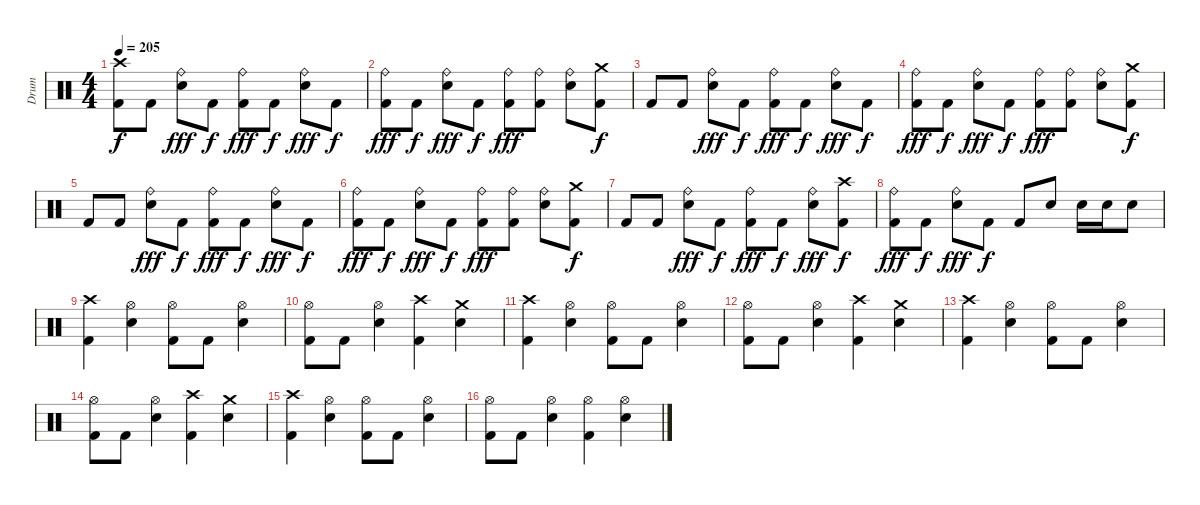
\track ("Drum" "Drum") {instrument percussion}
\staff {score}
\articulation defaults
\ts (4 4)
\tempo 205
\clef neutral
\ks c
("Kick (hit) 2" "Crash high (hit)").8{dy f} "Kick (hit) 2".8 ("Electric Snare (hit)" "Ride (bell)").8{dy fff} "Kick (hit) 2".8{dy f} ("Kick (hit) 2" "Ride (bell)").8{dy fff} "Kick (hit) 2".8{dy f} ("Electric Snare (hit)" "Ride (bell)").8{dy fff} "Kick (hit) 2".8{dy f} |
("Kick (hit) 2" "Ride (bell)").8{dy fff} "Kick (hit) 2".8{dy f} ("Electric Snare (hit)" "Ride (bell)").8{dy fff} "Kick (hit) 2".8{dy f} ("Kick (hit) 2" "Ride (bell)").8{dy fff} ("Kick (hit) 2" "Ride (bell)").8 ("Electric Snare (hit)" "Ride (bell)").8 ("Kick (hit) 2" "Crash medium (hit)").8{dy f} |
"Kick (hit) 2".8 "Kick (hit) 2".8 ("Electric Snare (hit)" "Ride (bell)").8{dy fff} "Kick (hit) 2".8{dy f} ("Kick (hit) 2" "Ride (bell)").8{dy fff} "Kick (hit) 2".8{dy f} ("Electric Snare (hit)" "Ride (bell)").8{dy fff} "Kick (hit) 2".8{dy f} |
("Kick (hit) 2" "Ride (bell)").8{dy fff} "Kick (hit) 2".8{dy f} ("Electric Snare (hit)" "Ride (bell)").8{dy fff} "Kick (hit) 2".8{dy f} ("Kick (hit) 2" "Ride (bell)").8{dy fff} ("Kick (hit) 2" "Ride (bell)").8 ("Electric Snare (hit)" "Ride (bell)").8 ("Kick (hit) 2" "Crash medium (hit)").8{dy f} |
"Kick (hit) 2".8 "Kick (hit) 2".8 ("Electric Snare (hit)" "Ride (bell)").8{dy fff} "Kick (hit) 2".8{dy f} ("Kick (hit) 2" "Ride (bell)").8{dy fff} "Kick (hit) 2".8{dy f} ("Electric Snare (hit)" "Ride (bell)").8{dy fff} "Kick (hit) 2".8{dy f} |
("Kick (hit) 2" "Ride (bell)").8{dy fff} "Kick (hit) 2".8{dy f} ("Electric Snare (hit)" "Ride (bell)").8{dy fff} "Kick (hit) 2".8{dy f} ("Kick (hit) 2" "Ride (bell)").8{dy fff} ("Kick (hit) 2" "Ride (bell)").8 ("Electric Snare (hit)" "Ride (bell)").8 ("Kick (hit) 2" "Crash medium (hit)").8{dy f} |
"Kick (hit) 2".8 "Kick (hit) 2".8 ("Electric Snare (hit)" "Ride (bell)").8{dy fff} "Kick (hit) 2".8{dy f} ("Kick (hit) 2" "Ride (bell)").8{dy fff} "Kick (hit) 2".8{dy f} ("Electric Snare (hit)" "Ride (bell)").8{dy fff} ("Kick (hit) 2" "Crash high (hit)").8{dy f} |
("Kick (hit) 2" "Ride (bell)").8{dy fff} "Kick (hit) 2".8{dy f} ("Electric Snare (hit)" "Ride (bell)").8{dy fff} "Kick (hit) 2".8{dy f} "Kick (hit) 2".8 "Electric Snare (hit)".8 "Electric Snare (hit)".16 "Electric Snare (hit)".16 "Electric Snare (hit)".8 |
("Kick (hit) 2" "Crash high (hit)").4 ("Electric Snare (hit)" "Hi-Hat (open)").4 ("Kick (hit) 2" "Hi-Hat (open)").8 "Kick (hit) 2".8 ("Electric Snare (hit)" "Hi-Hat (open)").4 |
("Kick (hit) 2" "Hi-Hat (open)").8 "Kick (hit) 2".8 ("Electric Snare (hit)" "Hi-Hat (open)").4 ("Kick (hit) 2" "Crash high (hit)").4 ("Electric Snare (hit)" "Crash medium (hit)").4 |
("Kick (hit) 2" "Crash high (hit)").4 ("Electric Snare (hit)" "Hi-Hat (open)").4 ("Kick (hit) 2" "Hi-Hat (open)").8 "Kick (hit) 2".8 ("Electric Snare (hit)" "Hi-Hat (open)").4 |
("Kick (hit) 2" "Hi-Hat (open)").8 "Kick (hit) 2".8 ("Electric Snare (hit)" "Hi-Hat (open)").4 ("Kick (hit) 2" "Crash high (hit)").4 ("Electric Snare (hit)" "Crash medium (hit)").4 |
("Kick (hit) 2" "Crash high (hit)").4 ("Electric Snare (hit)" "Hi-Hat (open)").4 ("Kick (hit) 2" "Hi-Hat (open)").8 "Kick (hit) 2".8 ("Electric Snare (hit)" "Hi-Hat (open)").4 |
("Kick (hit) 2" "Hi-Hat (open)").8 "Kick (hit) 2".8 ("Electric Snare (hit)" "Hi-Hat (open)").4 ("Kick (hit) 2" "Crash high (hit)").4 ("Electric Snare (hit)" "Crash medium (hit)").4 |
("Kick (hit) 2" "Crash high (hit)").4 ("Electric Snare (hit)" "Hi-Hat (open)").4 ("Kick (hit) 2" "Hi-Hat (open)").8 "Kick (hit) 2".8 ("Electric Snare (hit)" "Hi-Hat (open)").4 |
("Kick (hit) 2" "Hi-Hat (open)").8 "Kick (hit) 2".8 ("Electric Snare (hit)" "Hi-Hat (open)").4 ("Kick (hit) 2" "Hi-Hat (open)").4 ("Electric Snare (hit)" "Hi-Hat (open)").4
